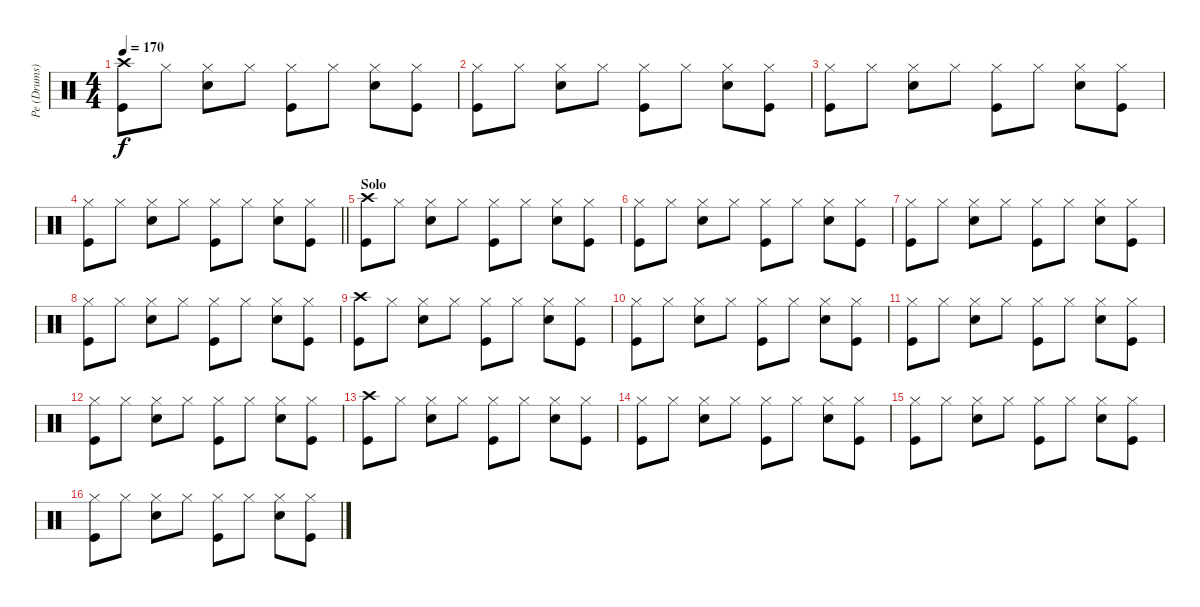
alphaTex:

\track ("Pe (Drums)" "Pe (Drums)") {instrument percussion}
\staff {score}
\articulation defaults
\ts (4 4)
\tempo 170
\clef neutral
\ks c
("Crash high (hit)" "Kick (hit)").8{dy f} "Hi-Hat (closed)".8 ("Hi-Hat (closed)" "Snare (hit) 2").8 "Hi-Hat (closed)".8 ("Hi-Hat (closed)" "Kick (hit)").8 "Hi-Hat (closed)".8 ("Hi-Hat (closed)" "Snare (hit) 2").8 ("Hi-Hat (closed)" "Kick (hit)").8 |
("Hi-Hat (closed)" "Kick (hit)").8 "Hi-Hat (closed)".8 ("Hi-Hat (closed)" "Snare (hit) 2").8 "Hi-Hat (closed)".8 ("Hi-Hat (closed)" "Kick (hit)").8 "Hi-Hat (closed)".8 ("Hi-Hat (closed)" "Snare (hit) 2").8 ("Hi-Hat (closed)" "Kick (hit)").8 |
("Hi-Hat (closed)" "Kick (hit)").8 "Hi-Hat (closed)".8 ("Hi-Hat (closed)" "Snare (hit) 2").8 "Hi-Hat (closed)".8 ("Hi-Hat (closed)" "Kick (hit)").8 "Hi-Hat (closed)".8 ("Hi-Hat (closed)" "Snare (hit) 2").8 ("Hi-Hat (closed)" "Kick (hit)").8 |
\barLineRight lightlight
("Hi-Hat (closed)" "Kick (hit)").8 "Hi-Hat (closed)".8 ("Hi-Hat (closed)" "Snare (hit) 2").8 "Hi-Hat (closed)".8 ("Hi-Hat (closed)" "Kick (hit)").8 "Hi-Hat (closed)".8 ("Hi-Hat (closed)" "Snare (hit) 2").8 ("Hi-Hat (closed)" "Kick (hit)").8 |
\section ("" "Solo")
("Crash high (hit)" "Kick (hit)").8 "Hi-Hat (closed)".8 ("Hi-Hat (closed)" "Snare (hit) 2").8 "Hi-Hat (closed)".8 ("Hi-Hat (closed)" "Kick (hit)").8 "Hi-Hat (closed)".8 ("Hi-Hat (closed)" "Snare (hit) 2").8 ("Hi-Hat (closed)" "Kick (hit)").8 |
("Hi-Hat (closed)" "Kick (hit)").8 "Hi-Hat (closed)".8 ("Hi-Hat (closed)" "Snare (hit) 2").8 "Hi-Hat (closed)".8 ("Hi-Hat (closed)" "Kick (hit)").8 "Hi-Hat (closed)".8 ("Hi-Hat (closed)" "Snare (hit) 2").8 ("Hi-Hat (closed)" "Kick (hit)").8 |
("Hi-Hat (closed)" "Kick (hit)").8 "Hi-Hat (closed)".8 ("Hi-Hat (closed)" "Snare (hit) 2").8 "Hi-Hat (closed)".8 ("Hi-Hat (closed)" "Kick (hit)").8 "Hi-Hat (closed)".8 ("Hi-Hat (closed)" "Snare (hit) 2").8 ("Hi-Hat (closed)" "Kick (hit)").8 |
("Hi-Hat (closed)" "Kick (hit)").8 "Hi-Hat (closed)".8 ("Hi-Hat (closed)" "Snare (hit) 2").8 "Hi-Hat (closed)".8 ("Hi-Hat (closed)" "Kick (hit)").8 "Hi-Hat (closed)".8 ("Hi-Hat (closed)" "Snare (hit) 2").8 ("Hi-Hat (closed)" "Kick (hit)").8 |
("Crash high (hit)" "Kick (hit)").8 "Hi-Hat (closed)".8 ("Hi-Hat (closed)" "Snare (hit) 2").8 "Hi-Hat (closed)".8 ("Hi-Hat (closed)" "Kick (hit)").8 "Hi-Hat (closed)".8 ("Hi-Hat (closed)" "Snare (hit) 2").8 ("Hi-Hat (closed)" "Kick (hit)").8 |
("Hi-Hat (closed)" "Kick (hit)").8 "Hi-Hat (closed)".8 ("Hi-Hat (closed)" "Snare (hit) 2").8 "Hi-Hat (closed)".8 ("Hi-Hat (closed)" "Kick (hit)").8 "Hi-Hat (closed)".8 ("Hi-Hat (closed)" "Snare (hit) 2").8 ("Hi-Hat (closed)" "Kick (hit)").8 |
("Hi-Hat (closed)" "Kick (hit)").8 "Hi-Hat (closed)".8 ("Hi-Hat (closed)" "Snare (hit) 2").8 "Hi-Hat (closed)".8 ("Hi-Hat (closed)" "Kick (hit)").8 "Hi-Hat (closed)".8 ("Hi-Hat (closed)" "Snare (hit) 2").8 ("Hi-Hat (closed)" "Kick (hit)").8 |
("Hi-Hat (closed)" "Kick (hit)").8 "Hi-Hat (closed)".8 ("Hi-Hat (closed)" "Snare (hit) 2").8 "Hi-Hat (closed)".8 ("Hi-Hat (closed)" "Kick (hit)").8 "Hi-Hat (closed)".8 ("Hi-Hat (closed)" "Snare (hit) 2").8 ("Hi-Hat (closed)" "Kick (hit)").8 |
("Crash high (hit)" "Kick (hit)").8 "Hi-Hat (closed)".8 ("Hi-Hat (closed)" "Snare (hit) 2").8 "Hi-Hat (closed)".8 ("Hi-Hat (closed)" "Kick (hit)").8 "Hi-Hat (closed)".8 ("Hi-Hat (closed)" "Snare (hit) 2").8 ("Hi-Hat (closed)" "Kick (hit)").8 |
("Hi-Hat (closed)" "Kick (hit)").8 "Hi-Hat (closed)".8 ("Hi-Hat (closed)" "Snare (hit) 2").8 "Hi-Hat (closed)".8 ("Hi-Hat (closed)" "Kick (hit)").8 "Hi-Hat (closed)".8 ("Hi-Hat (closed)" "Snare (hit) 2").8 ("Hi-Hat (closed)" "Kick (hit)").8 |
("Hi-Hat (closed)" "Kick (hit)").8 "Hi-Hat (closed)".8 ("Hi-Hat (closed)" "Snare (hit) 2").8 "Hi-Hat (closed)".8 ("Hi-Hat (closed)" "Kick (hit)").8 "Hi-Hat (closed)".8 ("Hi-Hat (closed)" "Snare (hit) 2").8 ("Hi-Hat (closed)" "Kick (hit)").8 |
("Hi-Hat (closed)" "Kick (hit)").8 "Hi-Hat (closed)".8 ("Hi-Hat (closed)" "Snare (hit) 2").8 "Hi-Hat (closed)".8 ("Hi-Hat (closed)" "Kick (hit)").8 "Hi-Hat (closed)".8 ("Hi-Hat (closed)" "Snare (hit) 2").8 ("Hi-Hat (closed)" "Kick (hit)").8
